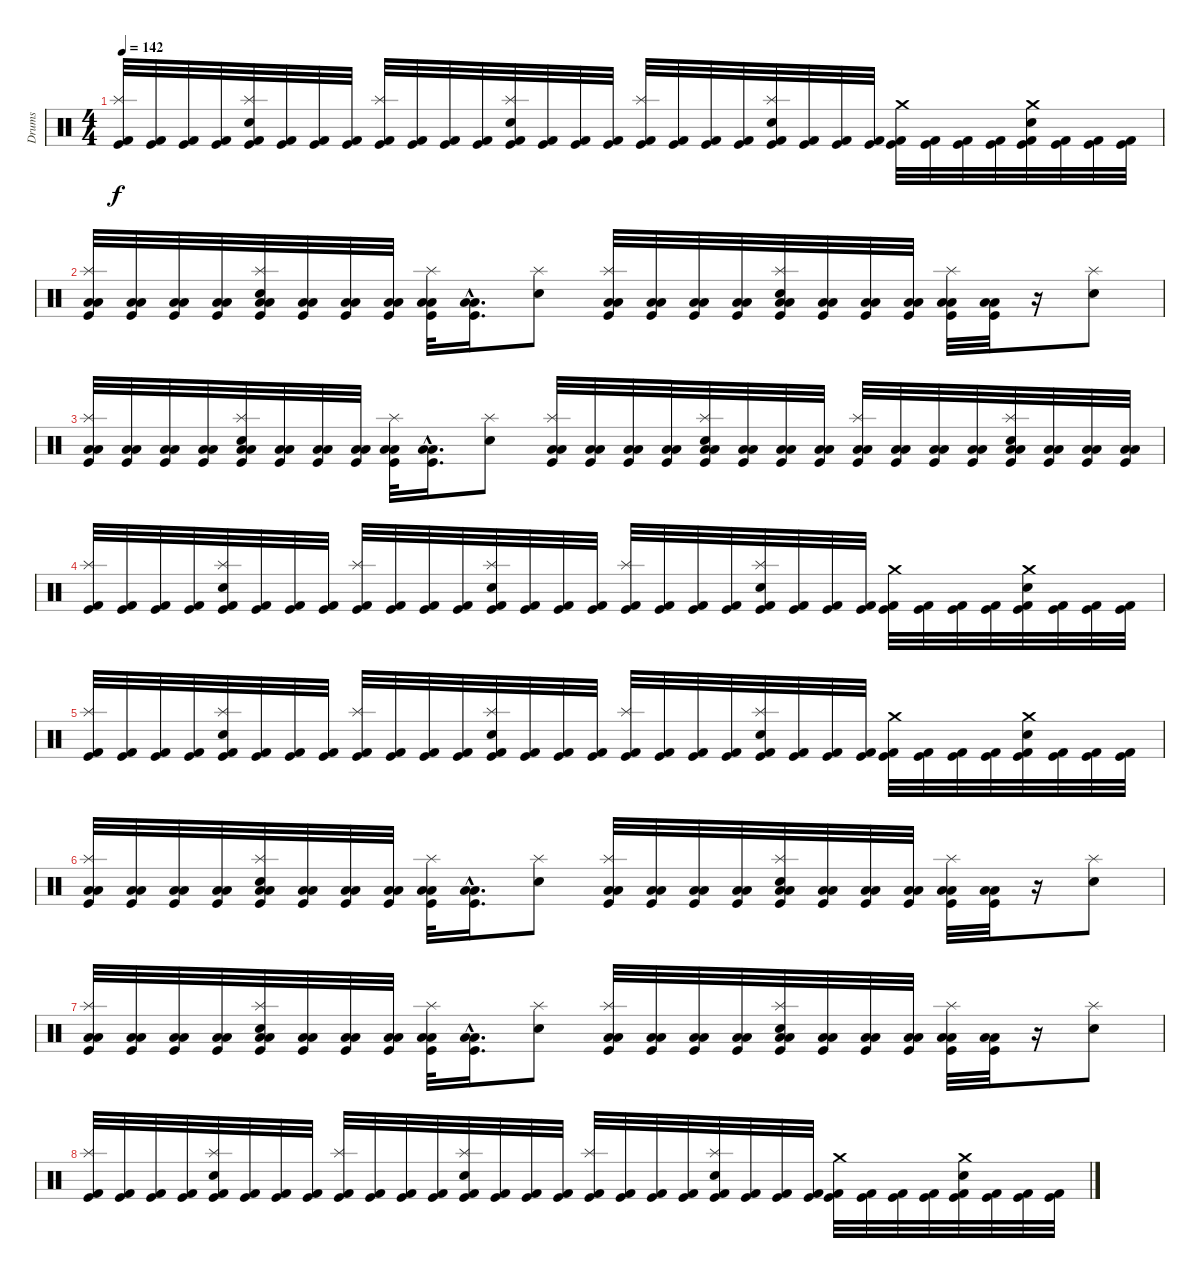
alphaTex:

\track ("Drums" "Drums") {instrument percussion}
\staff {score}
\articulation defaults
\ts (4 4)
\tempo 142
\clef neutral
\ks c
("Kick (hit)" "Splash (hit)" "Kick (hit) 2").32{dy f} ("Kick (hit)" "Kick (hit) 2").32 ("Kick (hit)" "Kick (hit) 2").32 ("Kick (hit)" "Kick (hit) 2").32 ("Electric Snare (hit)" "Kick (hit)" "Splash (hit)" "Kick (hit) 2").32 ("Kick (hit)" "Kick (hit) 2").32 ("Kick (hit)" "Kick (hit) 2").32 ("Kick (hit)" "Kick (hit) 2").32 ("Kick (hit)" "Splash (hit)" "Kick (hit) 2").32 ("Kick (hit)" "Kick (hit) 2").32 ("Kick (hit)" "Kick (hit) 2").32 ("Kick (hit)" "Kick (hit) 2").32 ("Electric Snare (hit)" "Kick (hit)" "Splash (hit)" "Kick (hit) 2").32 ("Kick (hit)" "Kick (hit) 2").32 ("Kick (hit)" "Kick (hit) 2").32 ("Kick (hit)" "Kick (hit) 2").32 ("Kick (hit)" "Splash (hit)" "Kick (hit) 2").32 ("Kick (hit)" "Kick (hit) 2").32 ("Kick (hit)" "Kick (hit) 2").32 ("Kick (hit)" "Kick (hit) 2").32 ("Electric Snare (hit)" "Kick (hit)" "Splash (hit)" "Kick (hit) 2").32 ("Kick (hit)" "Kick (hit) 2").32 ("Kick (hit)" "Kick (hit) 2").32 ("Kick (hit)" "Kick (hit) 2").32 ("Kick (hit)" "Crash medium (hit)" "Kick (hit) 2").32 ("Kick (hit)" "Kick (hit) 2").32 ("Kick (hit)" "Kick (hit) 2").32 ("Kick (hit)" "Kick (hit) 2").32 ("Electric Snare (hit)" "Kick (hit)" "Crash medium (hit)" "Kick (hit) 2").32 ("Kick (hit)" "Kick (hit) 2").32 ("Kick (hit)" "Kick (hit) 2").32 ("Kick (hit)" "Kick (hit) 2").32 |
("Splash (hit)" "Kick (hit)" "Low Floor Tom (hit)" "Low Tom (hit)").32 ("Kick (hit)" "Low Floor Tom (hit)" "Low Tom (hit)").32 ("Kick (hit)" "Low Floor Tom (hit)" "Low Tom (hit)").32 ("Kick (hit)" "Low Floor Tom (hit)" "Low Tom (hit)").32 ("Snare (hit) 2" "Splash (hit)" "Kick (hit)" "Low Floor Tom (hit)" "Low Tom (hit)").32 ("Kick (hit)" "Low Floor Tom (hit)" "Low Tom (hit)").32 ("Kick (hit)" "Low Floor Tom (hit)" "Low Tom (hit)").32 ("Kick (hit)" "Low Floor Tom (hit)" "Low Tom (hit)").32 ("Splash (hit)" "Low Floor Tom (hit)" "Kick (hit)" "Low Tom (hit)").32 ("Kick (hit)" "Low Floor Tom (hit)"{hac} "Low Tom (hit)").16{d} ("Electric Snare (hit)" "Splash (hit)").8 ("Splash (hit)" "Low Tom (hit)" "Low Floor Tom (hit)" "Kick (hit)").32 ("Kick (hit)" "Low Tom (hit)" "Low Floor Tom (hit)").32 ("Kick (hit)" "Low Tom (hit)" "Low Floor Tom (hit)").32 ("Kick (hit)" "Low Tom (hit)" "Low Floor Tom (hit)").32 ("Snare (hit) 2" "Splash (hit)" "Kick (hit)" "Low Tom (hit)" "Low Floor Tom (hit)").32 ("Kick (hit)" "Low Tom (hit)" "Low Floor Tom (hit)").32 ("Kick (hit)" "Low Tom (hit)" "Low Floor Tom (hit)").32 ("Kick (hit)" "Low Tom (hit)" "Low Floor Tom (hit)").32 ("Splash (hit)" "Kick (hit)" "Low Tom (hit)" "Low Floor Tom (hit)").32 ("Kick (hit)" "Low Tom (hit)" "Low Floor Tom (hit)").32 r.16 ("Electric Snare (hit)" "Splash (hit)").8 |
("Splash (hit)" "Kick (hit)" "Low Floor Tom (hit)" "Low Tom (hit)").32 ("Kick (hit)" "Low Floor Tom (hit)" "Low Tom (hit)").32 ("Kick (hit)" "Low Floor Tom (hit)" "Low Tom (hit)").32 ("Kick (hit)" "Low Floor Tom (hit)" "Low Tom (hit)").32 ("Snare (hit) 2" "Splash (hit)" "Kick (hit)" "Low Floor Tom (hit)" "Low Tom (hit)").32 ("Kick (hit)" "Low Floor Tom (hit)" "Low Tom (hit)").32 ("Kick (hit)" "Low Floor Tom (hit)" "Low Tom (hit)").32 ("Kick (hit)" "Low Floor Tom (hit)" "Low Tom (hit)").32 ("Splash (hit)" "Low Floor Tom (hit)" "Kick (hit)" "Low Tom (hit)").32 ("Kick (hit)" "Low Floor Tom (hit)"{hac} "Low Tom (hit)").16{d} ("Electric Snare (hit)" "Splash (hit)").8 ("Splash (hit)" "Low Tom (hit)" "Low Floor Tom (hit)" "Kick (hit)").32 ("Kick (hit)" "Low Tom (hit)" "Low Floor Tom (hit)").32 ("Kick (hit)" "Low Tom (hit)" "Low Floor Tom (hit)").32 ("Kick (hit)" "Low Tom (hit)" "Low Floor Tom (hit)").32 ("Snare (hit) 2" "Splash (hit)" "Kick (hit)" "Low Tom (hit)" "Low Floor Tom (hit)").32 ("Kick (hit)" "Low Tom (hit)" "Low Floor Tom (hit)").32 ("Kick (hit)" "Low Tom (hit)" "Low Floor Tom (hit)").32 ("Kick (hit)" "Low Tom (hit)" "Low Floor Tom (hit)").32 ("Splash (hit)" "Kick (hit)" "Low Tom (hit)" "Low Floor Tom (hit)").32 ("Kick (hit)" "Low Tom (hit)" "Low Floor Tom (hit)").32 ("Kick (hit)" "Low Floor Tom (hit)" "Low Tom (hit)").32 ("Kick (hit)" "Low Floor Tom (hit)" "Low Tom (hit)").32 ("Low Floor Tom (hit)" "Kick (hit)" "Low Tom (hit)" "Electric Snare (hit)" "Splash (hit)").32 ("Kick (hit)" "Low Floor Tom (hit)" "Low Tom (hit)").32 ("Kick (hit)" "Low Floor Tom (hit)" "Low Tom (hit)").32 ("Kick (hit)" "Low Floor Tom (hit)" "Low Tom (hit)").32 |
("Kick (hit)" "Splash (hit)" "Kick (hit) 2").32 ("Kick (hit)" "Kick (hit) 2").32 ("Kick (hit)" "Kick (hit) 2").32 ("Kick (hit)" "Kick (hit) 2").32 ("Electric Snare (hit)" "Kick (hit)" "Splash (hit)" "Kick (hit) 2").32 ("Kick (hit)" "Kick (hit) 2").32 ("Kick (hit)" "Kick (hit) 2").32 ("Kick (hit)" "Kick (hit) 2").32 ("Kick (hit)" "Splash (hit)" "Kick (hit) 2").32 ("Kick (hit)" "Kick (hit) 2").32 ("Kick (hit)" "Kick (hit) 2").32 ("Kick (hit)" "Kick (hit) 2").32 ("Electric Snare (hit)" "Kick (hit)" "Splash (hit)" "Kick (hit) 2").32 ("Kick (hit)" "Kick (hit) 2").32 ("Kick (hit)" "Kick (hit) 2").32 ("Kick (hit)" "Kick (hit) 2").32 ("Kick (hit)" "Splash (hit)" "Kick (hit) 2").32 ("Kick (hit)" "Kick (hit) 2").32 ("Kick (hit)" "Kick (hit) 2").32 ("Kick (hit)" "Kick (hit) 2").32 ("Electric Snare (hit)" "Kick (hit)" "Splash (hit)" "Kick (hit) 2").32 ("Kick (hit)" "Kick (hit) 2").32 ("Kick (hit)" "Kick (hit) 2").32 ("Kick (hit)" "Kick (hit) 2").32 ("Kick (hit)" "Crash medium (hit)" "Kick (hit) 2").32 ("Kick (hit)" "Kick (hit) 2").32 ("Kick (hit)" "Kick (hit) 2").32 ("Kick (hit)" "Kick (hit) 2").32 ("Electric Snare (hit)" "Kick (hit)" "Crash medium (hit)" "Kick (hit) 2").32 ("Kick (hit)" "Kick (hit) 2").32 ("Kick (hit)" "Kick (hit) 2").32 ("Kick (hit)" "Kick (hit) 2").32 |
("Kick (hit)" "Splash (hit)" "Kick (hit) 2").32 ("Kick (hit)" "Kick (hit) 2").32 ("Kick (hit)" "Kick (hit) 2").32 ("Kick (hit)" "Kick (hit) 2").32 ("Electric Snare (hit)" "Kick (hit)" "Splash (hit)" "Kick (hit) 2").32 ("Kick (hit)" "Kick (hit) 2").32 ("Kick (hit)" "Kick (hit) 2").32 ("Kick (hit)" "Kick (hit) 2").32 ("Kick (hit)" "Splash (hit)" "Kick (hit) 2").32 ("Kick (hit)" "Kick (hit) 2").32 ("Kick (hit)" "Kick (hit) 2").32 ("Kick (hit)" "Kick (hit) 2").32 ("Electric Snare (hit)" "Kick (hit)" "Splash (hit)" "Kick (hit) 2").32 ("Kick (hit)" "Kick (hit) 2").32 ("Kick (hit)" "Kick (hit) 2").32 ("Kick (hit)" "Kick (hit) 2").32 ("Kick (hit)" "Splash (hit)" "Kick (hit) 2").32 ("Kick (hit)" "Kick (hit) 2").32 ("Kick (hit)" "Kick (hit) 2").32 ("Kick (hit)" "Kick (hit) 2").32 ("Electric Snare (hit)" "Kick (hit)" "Splash (hit)" "Kick (hit) 2").32 ("Kick (hit)" "Kick (hit) 2").32 ("Kick (hit)" "Kick (hit) 2").32 ("Kick (hit)" "Kick (hit) 2").32 ("Kick (hit)" "Crash medium (hit)" "Kick (hit) 2").32 ("Kick (hit)" "Kick (hit) 2").32 ("Kick (hit)" "Kick (hit) 2").32 ("Kick (hit)" "Kick (hit) 2").32 ("Electric Snare (hit)" "Kick (hit)" "Crash medium (hit)" "Kick (hit) 2").32 ("Kick (hit)" "Kick (hit) 2").32 ("Kick (hit)" "Kick (hit) 2").32 ("Kick (hit)" "Kick (hit) 2").32 |
("Splash (hit)" "Kick (hit)" "Low Floor Tom (hit)" "Low Tom (hit)").32 ("Kick (hit)" "Low Floor Tom (hit)" "Low Tom (hit)").32 ("Kick (hit)" "Low Floor Tom (hit)" "Low Tom (hit)").32 ("Kick (hit)" "Low Floor Tom (hit)" "Low Tom (hit)").32 ("Snare (hit) 2" "Splash (hit)" "Kick (hit)" "Low Floor Tom (hit)" "Low Tom (hit)").32 ("Kick (hit)" "Low Floor Tom (hit)" "Low Tom (hit)").32 ("Kick (hit)" "Low Floor Tom (hit)" "Low Tom (hit)").32 ("Kick (hit)" "Low Floor Tom (hit)" "Low Tom (hit)").32 ("Splash (hit)" "Low Floor Tom (hit)" "Kick (hit)" "Low Tom (hit)").32 ("Kick (hit)" "Low Floor Tom (hit)"{hac} "Low Tom (hit)").16{d} ("Electric Snare (hit)" "Splash (hit)").8 ("Splash (hit)" "Low Tom (hit)" "Low Floor Tom (hit)" "Kick (hit)").32 ("Kick (hit)" "Low Tom (hit)" "Low Floor Tom (hit)").32 ("Kick (hit)" "Low Tom (hit)" "Low Floor Tom (hit)").32 ("Kick (hit)" "Low Tom (hit)" "Low Floor Tom (hit)").32 ("Snare (hit) 2" "Splash (hit)" "Kick (hit)" "Low Tom (hit)" "Low Floor Tom (hit)").32 ("Kick (hit)" "Low Tom (hit)" "Low Floor Tom (hit)").32 ("Kick (hit)" "Low Tom (hit)" "Low Floor Tom (hit)").32 ("Kick (hit)" "Low Tom (hit)" "Low Floor Tom (hit)").32 ("Splash (hit)" "Kick (hit)" "Low Tom (hit)" "Low Floor Tom (hit)").32 ("Kick (hit)" "Low Tom (hit)" "Low Floor Tom (hit)").32 r.16 ("Electric Snare (hit)" "Splash (hit)").8 |
("Splash (hit)" "Kick (hit)" "Low Floor Tom (hit)" "Low Tom (hit)").32 ("Kick (hit)" "Low Floor Tom (hit)" "Low Tom (hit)").32 ("Kick (hit)" "Low Floor Tom (hit)" "Low Tom (hit)").32 ("Kick (hit)" "Low Floor Tom (hit)" "Low Tom (hit)").32 ("Snare (hit) 2" "Splash (hit)" "Kick (hit)" "Low Floor Tom (hit)" "Low Tom (hit)").32 ("Kick (hit)" "Low Floor Tom (hit)" "Low Tom (hit)").32 ("Kick (hit)" "Low Floor Tom (hit)" "Low Tom (hit)").32 ("Kick (hit)" "Low Floor Tom (hit)" "Low Tom (hit)").32 ("Splash (hit)" "Low Floor Tom (hit)" "Kick (hit)" "Low Tom (hit)").32 ("Kick (hit)" "Low Floor Tom (hit)"{hac} "Low Tom (hit)").16{d} ("Electric Snare (hit)" "Splash (hit)").8 ("Splash (hit)" "Low Tom (hit)" "Low Floor Tom (hit)" "Kick (hit)").32 ("Kick (hit)" "Low Tom (hit)" "Low Floor Tom (hit)").32 ("Kick (hit)" "Low Tom (hit)" "Low Floor Tom (hit)").32 ("Kick (hit)" "Low Tom (hit)" "Low Floor Tom (hit)").32 ("Snare (hit) 2" "Splash (hit)" "Kick (hit)" "Low Tom (hit)" "Low Floor Tom (hit)").32 ("Kick (hit)" "Low Tom (hit)" "Low Floor Tom (hit)").32 ("Kick (hit)" "Low Tom (hit)" "Low Floor Tom (hit)").32 ("Kick (hit)" "Low Tom (hit)" "Low Floor Tom (hit)").32 ("Splash (hit)" "Kick (hit)" "Low Tom (hit)" "Low Floor Tom (hit)").32 ("Kick (hit)" "Low Tom (hit)" "Low Floor Tom (hit)").32 r.16 ("Electric Snare (hit)" "Splash (hit)").8 |
("Kick (hit)" "Splash (hit)" "Kick (hit) 2").32 ("Kick (hit)" "Kick (hit) 2").32 ("Kick (hit)" "Kick (hit) 2").32 ("Kick (hit)" "Kick (hit) 2").32 ("Electric Snare (hit)" "Kick (hit)" "Splash (hit)" "Kick (hit) 2").32 ("Kick (hit)" "Kick (hit) 2").32 ("Kick (hit)" "Kick (hit) 2").32 ("Kick (hit)" "Kick (hit) 2").32 ("Kick (hit)" "Splash (hit)" "Kick (hit) 2").32 ("Kick (hit)" "Kick (hit) 2").32 ("Kick (hit)" "Kick (hit) 2").32 ("Kick (hit)" "Kick (hit) 2").32 ("Electric Snare (hit)" "Kick (hit)" "Splash (hit)" "Kick (hit) 2").32 ("Kick (hit)" "Kick (hit) 2").32 ("Kick (hit)" "Kick (hit) 2").32 ("Kick (hit)" "Kick (hit) 2").32 ("Kick (hit)" "Splash (hit)" "Kick (hit) 2").32 ("Kick (hit)" "Kick (hit) 2").32 ("Kick (hit)" "Kick (hit) 2").32 ("Kick (hit)" "Kick (hit) 2").32 ("Electric Snare (hit)" "Kick (hit)" "Splash (hit)" "Kick (hit) 2").32 ("Kick (hit)" "Kick (hit) 2").32 ("Kick (hit)" "Kick (hit) 2").32 ("Kick (hit)" "Kick (hit) 2").32 ("Kick (hit)" "Crash medium (hit)" "Kick (hit) 2").32 ("Kick (hit)" "Kick (hit) 2").32 ("Kick (hit)" "Kick (hit) 2").32 ("Kick (hit)" "Kick (hit) 2").32 ("Electric Snare (hit)" "Kick (hit)" "Crash medium (hit)" "Kick (hit) 2").32 ("Kick (hit)" "Kick (hit) 2").32 ("Kick (hit)" "Kick (hit) 2").32 ("Kick (hit)" "Kick (hit) 2").32
